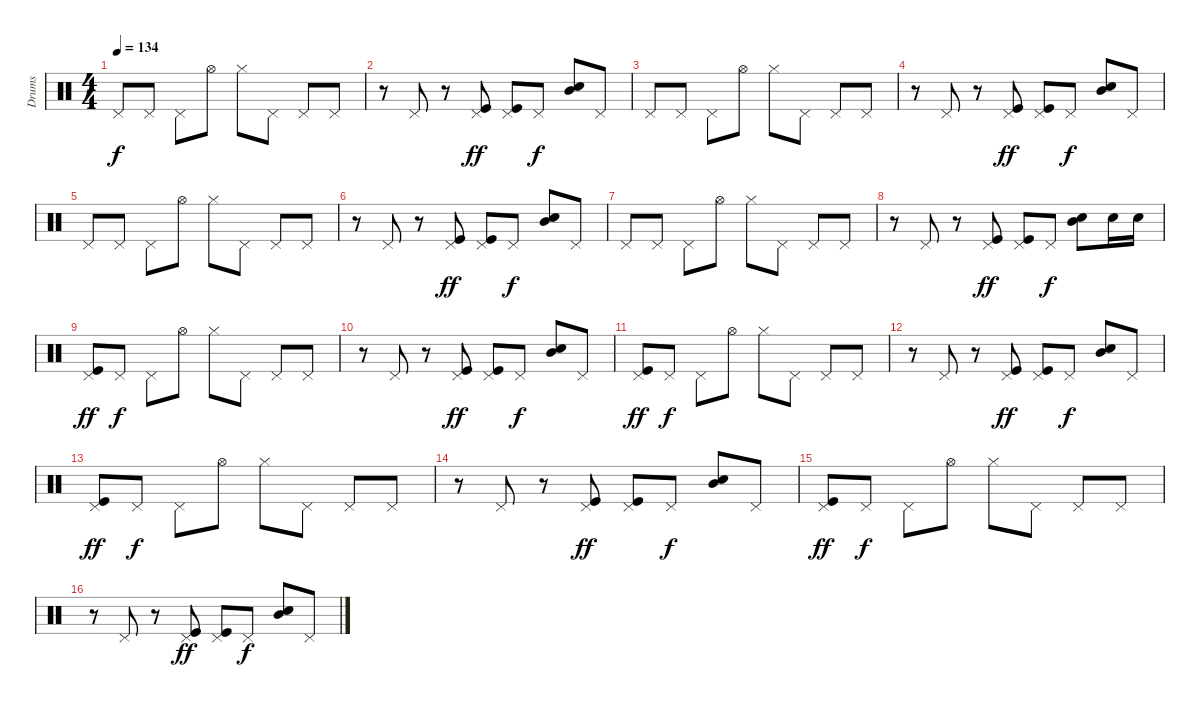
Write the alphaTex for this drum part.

\track ("Drums" "Drums") {instrument percussion}
\staff {score}
\articulation defaults
\ts (4 4)
\tempo 134
\clef neutral
\ks c "Pedal Hi-Hat (hit)".8{dy f} "Pedal Hi-Hat (hit)".8 "Pedal Hi-Hat (hit)".8 "Hi-Hat (open)".8 "Hi-Hat (closed)".8 "Pedal Hi-Hat (hit)".8 "Pedal Hi-Hat (hit)".8 "Pedal Hi-Hat (hit)".8
|
r.8 "Pedal Hi-Hat (hit)".8 r.8 ("Pedal Hi-Hat (hit)" "Kick (hit)").8{dy ff} ("Pedal Hi-Hat (hit)" "Kick (hit)").8 "Pedal Hi-Hat (hit)".8{dy f} ("Mid Tom (hit)" "Snare (hit) 2").8 "Pedal Hi-Hat (hit)".8 |
"Pedal Hi-Hat (hit)".8 "Pedal Hi-Hat (hit)".8 "Pedal Hi-Hat (hit)".8 "Hi-Hat (open)".8 "Hi-Hat (closed)".8 "Pedal Hi-Hat (hit)".8 "Pedal Hi-Hat (hit)".8 "Pedal Hi-Hat (hit)".8 |
r.8 "Pedal Hi-Hat (hit)".8 r.8 ("Pedal Hi-Hat (hit)" "Kick (hit)").8{dy ff} ("Pedal Hi-Hat (hit)" "Kick (hit)").8 "Pedal Hi-Hat (hit)".8{dy f} ("Mid Tom (hit)" "Snare (hit) 2").8 "Pedal Hi-Hat (hit)".8 |
"Pedal Hi-Hat (hit)".8 "Pedal Hi-Hat (hit)".8 "Pedal Hi-Hat (hit)".8 "Hi-Hat (open)".8 "Hi-Hat (closed)".8 "Pedal Hi-Hat (hit)".8 "Pedal Hi-Hat (hit)".8 "Pedal Hi-Hat (hit)".8 |
r.8 "Pedal Hi-Hat (hit)".8 r.8 ("Pedal Hi-Hat (hit)" "Kick (hit)").8{dy ff} ("Pedal Hi-Hat (hit)" "Kick (hit)").8 "Pedal Hi-Hat (hit)".8{dy f} ("Mid Tom (hit)" "Snare (hit) 2").8 "Pedal Hi-Hat (hit)".8 |
"Pedal Hi-Hat (hit)".8 "Pedal Hi-Hat (hit)".8 "Pedal Hi-Hat (hit)".8 "Hi-Hat (open)".8 "Hi-Hat (closed)".8 "Pedal Hi-Hat (hit)".8 "Pedal Hi-Hat (hit)".8 "Pedal Hi-Hat (hit)".8 |
r.8 "Pedal Hi-Hat (hit)".8 r.8 ("Pedal Hi-Hat (hit)" "Kick (hit)").8{dy ff} ("Pedal Hi-Hat (hit)" "Kick (hit)").8 "Pedal Hi-Hat (hit)".8{dy f} ("Mid Tom (hit)" "Snare (hit) 2").8 "Snare (hit) 2".16 "Snare (hit) 2".16 |
("Pedal Hi-Hat (hit)" "Kick (hit)").8{dy ff} "Pedal Hi-Hat (hit)".8{dy f} "Pedal Hi-Hat (hit)".8 "Hi-Hat (open)".8 "Hi-Hat (closed)".8 "Pedal Hi-Hat (hit)".8 "Pedal Hi-Hat (hit)".8 "Pedal Hi-Hat (hit)".8 |
r.8 "Pedal Hi-Hat (hit)".8 r.8 ("Pedal Hi-Hat (hit)" "Kick (hit)").8{dy ff} ("Pedal Hi-Hat (hit)" "Kick (hit)").8 "Pedal Hi-Hat (hit)".8{dy f} ("Mid Tom (hit)" "Snare (hit) 2").8 "Pedal Hi-Hat (hit)".8 |
("Pedal Hi-Hat (hit)" "Kick (hit)").8{dy ff} "Pedal Hi-Hat (hit)".8{dy f} "Pedal Hi-Hat (hit)".8 "Hi-Hat (open)".8 "Hi-Hat (closed)".8 "Pedal Hi-Hat (hit)".8 "Pedal Hi-Hat (hit)".8 "Pedal Hi-Hat (hit)".8 |
r.8 "Pedal Hi-Hat (hit)".8 r.8 ("Pedal Hi-Hat (hit)" "Kick (hit)").8{dy ff} ("Pedal Hi-Hat (hit)" "Kick (hit)").8 "Pedal Hi-Hat (hit)".8{dy f} ("Mid Tom (hit)" "Snare (hit) 2").8 "Pedal Hi-Hat (hit)".8 |
("Pedal Hi-Hat (hit)" "Kick (hit)").8{dy ff} "Pedal Hi-Hat (hit)".8{dy f} "Pedal Hi-Hat (hit)".8 "Hi-Hat (open)".8 "Hi-Hat (closed)".8 "Pedal Hi-Hat (hit)".8 "Pedal Hi-Hat (hit)".8 "Pedal Hi-Hat (hit)".8 |
r.8 "Pedal Hi-Hat (hit)".8 r.8 ("Pedal Hi-Hat (hit)" "Kick (hit)").8{dy ff} ("Pedal Hi-Hat (hit)" "Kick (hit)").8 "Pedal Hi-Hat (hit)".8{dy f} ("Mid Tom (hit)" "Snare (hit) 2").8 "Pedal Hi-Hat (hit)".8 |
("Pedal Hi-Hat (hit)" "Kick (hit)").8{dy ff} "Pedal Hi-Hat (hit)".8{dy f} "Pedal Hi-Hat (hit)".8 "Hi-Hat (open)".8 "Hi-Hat (closed)".8 "Pedal Hi-Hat (hit)".8 "Pedal Hi-Hat (hit)".8 "Pedal Hi-Hat (hit)".8 |
r.8 "Pedal Hi-Hat (hit)".8 r.8 ("Pedal Hi-Hat (hit)" "Kick (hit)").8{dy ff} ("Pedal Hi-Hat (hit)" "Kick (hit)").8 "Pedal Hi-Hat (hit)".8{dy f} ("Mid Tom (hit)" "Snare (hit) 2").8 "Pedal Hi-Hat (hit)".8
